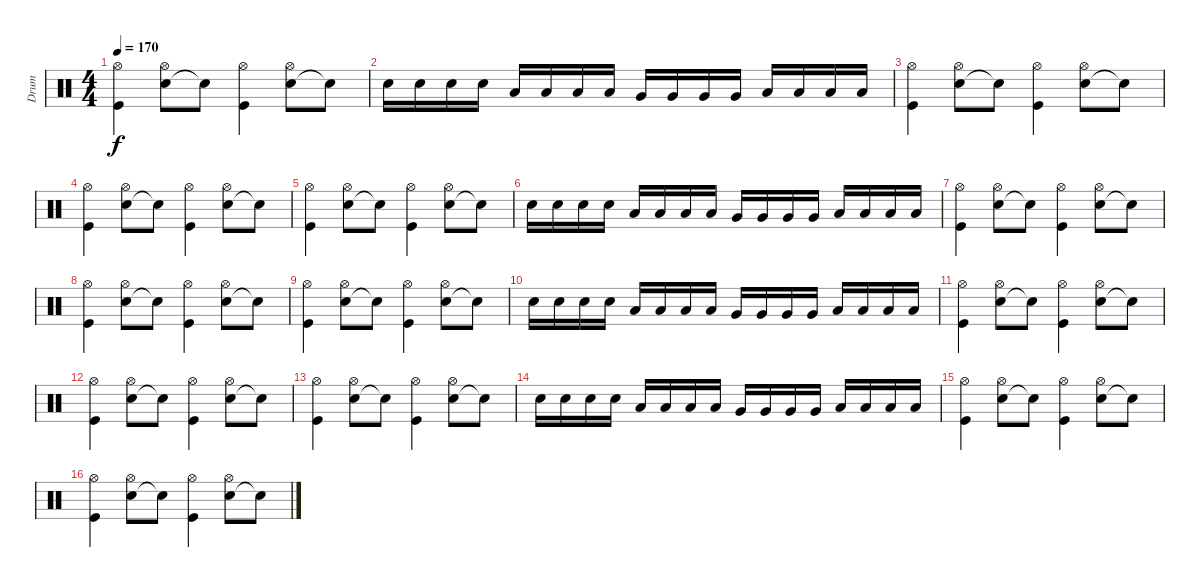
\track ("Drum" "Drum") {instrument percussion}
\staff {score}
\articulation defaults
\ts (4 4)
\tempo 170
\clef neutral
\ks c
("Hi-Hat (open)" "Kick (hit)").4{dy f} ("Snare (hit) 2" "Hi-Hat (open)").8 "Electric Snare (hit)"{t}.8 ("Hi-Hat (open)" "Kick (hit)").4 ("Snare (hit) 2" "Hi-Hat (open)").8 "Electric Snare (hit)"{t}.8 |
"Electric Snare (hit)".16 "Electric Snare (hit)".16 "Electric Snare (hit)".16 "Electric Snare (hit)".16 "Low Tom (hit)".16 "Low Tom (hit)".16 "Low Tom (hit)".16 "Low Tom (hit)".16 "Very Low Tom (hit)".16 "Very Low Tom (hit)".16 "Very Low Tom (hit)".16 "Very Low Tom (hit)".16 "Low Floor Tom (hit)".16 "Low Floor Tom (hit)".16 "Low Floor Tom (hit)".16 "Low Floor Tom (hit)".16 |
("Hi-Hat (open)" "Kick (hit)").4 ("Snare (hit) 2" "Hi-Hat (open)").8 "Electric Snare (hit)"{t}.8 ("Hi-Hat (open)" "Kick (hit)").4 ("Snare (hit) 2" "Hi-Hat (open)").8 "Electric Snare (hit)"{t}.8 |
("Hi-Hat (open)" "Kick (hit)").4 ("Snare (hit) 2" "Hi-Hat (open)").8 "Electric Snare (hit)"{t}.8 ("Hi-Hat (open)" "Kick (hit)").4 ("Snare (hit) 2" "Hi-Hat (open)").8 "Electric Snare (hit)"{t}.8 |
("Hi-Hat (open)" "Kick (hit)").4 ("Snare (hit) 2" "Hi-Hat (open)").8 "Electric Snare (hit)"{t}.8 ("Hi-Hat (open)" "Kick (hit)").4 ("Snare (hit) 2" "Hi-Hat (open)").8 "Electric Snare (hit)"{t}.8 |
"Electric Snare (hit)".16 "Electric Snare (hit)".16 "Electric Snare (hit)".16 "Electric Snare (hit)".16 "Low Tom (hit)".16 "Low Tom (hit)".16 "Low Tom (hit)".16 "Low Tom (hit)".16 "Very Low Tom (hit)".16 "Very Low Tom (hit)".16 "Very Low Tom (hit)".16 "Very Low Tom (hit)".16 "Low Floor Tom (hit)".16 "Low Floor Tom (hit)".16 "Low Floor Tom (hit)".16 "Low Floor Tom (hit)".16 |
("Hi-Hat (open)" "Kick (hit)").4 ("Snare (hit) 2" "Hi-Hat (open)").8 "Electric Snare (hit)"{t}.8 ("Hi-Hat (open)" "Kick (hit)").4 ("Snare (hit) 2" "Hi-Hat (open)").8 "Electric Snare (hit)"{t}.8 |
("Hi-Hat (open)" "Kick (hit)").4 ("Snare (hit) 2" "Hi-Hat (open)").8 "Electric Snare (hit)"{t}.8 ("Hi-Hat (open)" "Kick (hit)").4 ("Snare (hit) 2" "Hi-Hat (open)").8 "Electric Snare (hit)"{t}.8 |
("Hi-Hat (open)" "Kick (hit)").4 ("Snare (hit) 2" "Hi-Hat (open)").8 "Electric Snare (hit)"{t}.8 ("Hi-Hat (open)" "Kick (hit)").4 ("Snare (hit) 2" "Hi-Hat (open)").8 "Electric Snare (hit)"{t}.8 |
"Electric Snare (hit)".16 "Electric Snare (hit)".16 "Electric Snare (hit)".16 "Electric Snare (hit)".16 "Low Tom (hit)".16 "Low Tom (hit)".16 "Low Tom (hit)".16 "Low Tom (hit)".16 "Very Low Tom (hit)".16 "Very Low Tom (hit)".16 "Very Low Tom (hit)".16 "Very Low Tom (hit)".16 "Low Floor Tom (hit)".16 "Low Floor Tom (hit)".16 "Low Floor Tom (hit)".16 "Low Floor Tom (hit)".16 |
("Hi-Hat (open)" "Kick (hit)").4 ("Snare (hit) 2" "Hi-Hat (open)").8 "Electric Snare (hit)"{t}.8 ("Hi-Hat (open)" "Kick (hit)").4 ("Snare (hit) 2" "Hi-Hat (open)").8 "Electric Snare (hit)"{t}.8 |
("Hi-Hat (open)" "Kick (hit)").4 ("Snare (hit) 2" "Hi-Hat (open)").8 "Electric Snare (hit)"{t}.8 ("Hi-Hat (open)" "Kick (hit)").4 ("Snare (hit) 2" "Hi-Hat (open)").8 "Electric Snare (hit)"{t}.8 |
("Hi-Hat (open)" "Kick (hit)").4 ("Snare (hit) 2" "Hi-Hat (open)").8 "Electric Snare (hit)"{t}.8 ("Hi-Hat (open)" "Kick (hit)").4 ("Snare (hit) 2" "Hi-Hat (open)").8 "Electric Snare (hit)"{t}.8 |
"Electric Snare (hit)".16 "Electric Snare (hit)".16 "Electric Snare (hit)".16 "Electric Snare (hit)".16 "Low Tom (hit)".16 "Low Tom (hit)".16 "Low Tom (hit)".16 "Low Tom (hit)".16 "Very Low Tom (hit)".16 "Very Low Tom (hit)".16 "Very Low Tom (hit)".16 "Very Low Tom (hit)".16 "Low Floor Tom (hit)".16 "Low Floor Tom (hit)".16 "Low Floor Tom (hit)".16 "Low Floor Tom (hit)".16 |
("Hi-Hat (open)" "Kick (hit)").4 ("Snare (hit) 2" "Hi-Hat (open)").8 "Electric Snare (hit)"{t}.8 ("Hi-Hat (open)" "Kick (hit)").4 ("Snare (hit) 2" "Hi-Hat (open)").8 "Electric Snare (hit)"{t}.8 |
("Hi-Hat (open)" "Kick (hit)").4 ("Snare (hit) 2" "Hi-Hat (open)").8 "Electric Snare (hit)"{t}.8 ("Hi-Hat (open)" "Kick (hit)").4 ("Snare (hit) 2" "Hi-Hat (open)").8 "Electric Snare (hit)"{t}.8
